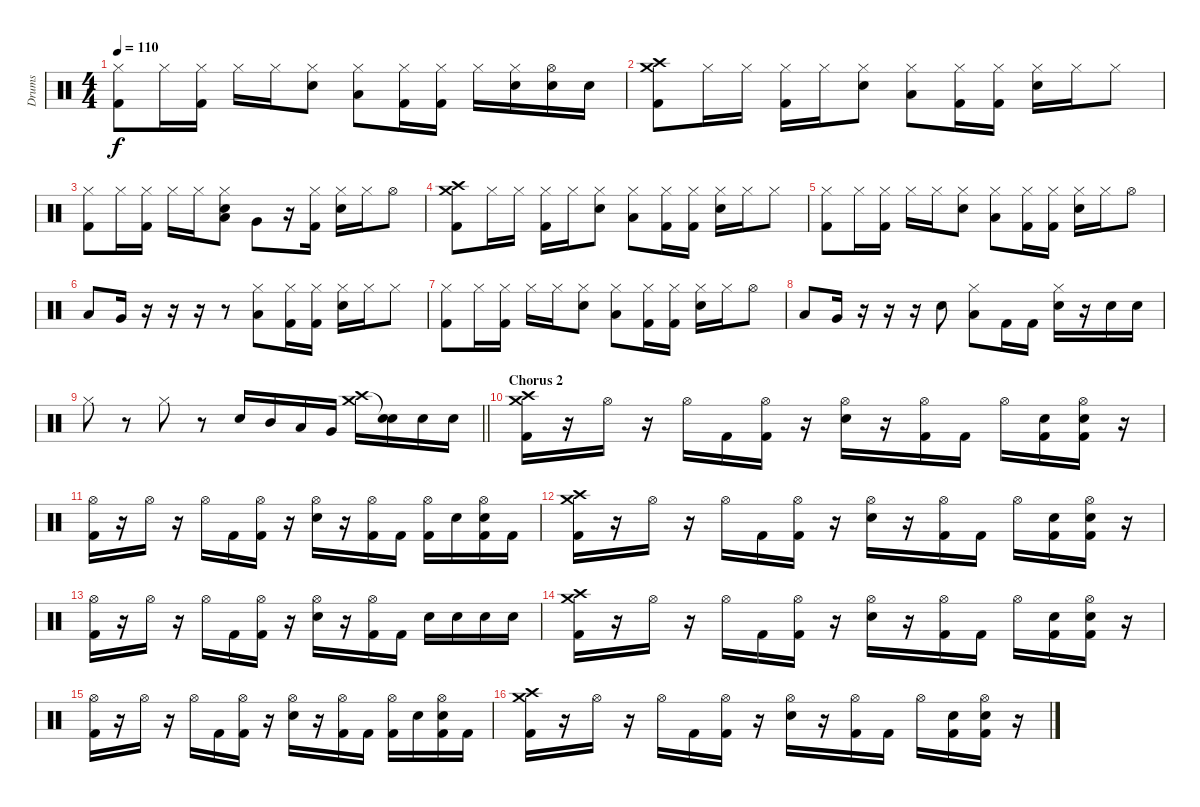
\track ("Drums" "Drums") {instrument percussion}
\staff {score}
\articulation defaults
\ts (4 4)
\tempo 110
\clef neutral
\ks c
("Hi-Hat (closed)" "Kick (hit) 2").8{dy f} "Hi-Hat (closed)".16 ("Hi-Hat (closed)" "Kick (hit) 2").16 "Hi-Hat (closed)".16 "Hi-Hat (closed)".16 ("Hi-Hat (closed)" "Snare (hit) 2").8 ("Hi-Hat (closed)" "Low Tom (hit)").8 ("Hi-Hat (closed)" "Kick (hit) 2").16 ("Hi-Hat (closed)" "Kick (hit) 2").16 "Hi-Hat (closed)".16 ("Hi-Hat (closed)" "Snare (hit) 2").16 ("Hi-Hat (open)" "Snare (hit) 2").16 "Snare (hit) 2".16 |
("Crash medium (hit)" "Crash high (hit)" "Kick (hit) 2").8 "Hi-Hat (closed)".16 "Hi-Hat (closed)".16 ("Hi-Hat (closed)" "Kick (hit) 2").16 "Hi-Hat (closed)".16 ("Hi-Hat (closed)" "Snare (hit) 2").8 ("Hi-Hat (closed)" "Low Tom (hit)").8 ("Hi-Hat (closed)" "Kick (hit) 2").16 ("Hi-Hat (closed)" "Kick (hit) 2").16 ("Hi-Hat (closed)" "Snare (hit) 2").16 "Hi-Hat (closed)".16 "Hi-Hat (closed)".8 |
("Hi-Hat (closed)" "Kick (hit) 2").8 "Hi-Hat (closed)".16 ("Hi-Hat (closed)" "Kick (hit) 2").16 "Hi-Hat (closed)".16 "Hi-Hat (closed)".16 ("Hi-Hat (closed)" "Low Tom (hit)" "Snare (hit) 2").8 "Very Low Tom (hit)".8 r.16 ("Hi-Hat (closed)" "Kick (hit) 2").16 ("Hi-Hat (closed)" "Snare (hit) 2").16 "Hi-Hat (closed)".16 "Hi-Hat (open)".8 |
("Crash medium (hit)" "Crash high (hit)" "Kick (hit) 2").8 "Hi-Hat (closed)".16 "Hi-Hat (closed)".16 ("Hi-Hat (closed)" "Kick (hit) 2").16 "Hi-Hat (closed)".16 ("Hi-Hat (closed)" "Snare (hit) 2").8 ("Hi-Hat (closed)" "Low Tom (hit)").8 ("Hi-Hat (closed)" "Kick (hit) 2").16 ("Hi-Hat (closed)" "Kick (hit) 2").16 ("Hi-Hat (closed)" "Snare (hit) 2").16 "Hi-Hat (closed)".16 "Hi-Hat (closed)".8 |
("Hi-Hat (closed)" "Kick (hit) 2").8 "Hi-Hat (closed)".16 ("Hi-Hat (closed)" "Kick (hit) 2").16 "Hi-Hat (closed)".16 "Hi-Hat (closed)".16 ("Hi-Hat (closed)" "Snare (hit) 2").8 ("Hi-Hat (closed)" "Low Tom (hit)").8 ("Hi-Hat (closed)" "Kick (hit) 2").16 ("Hi-Hat (closed)" "Kick (hit) 2").16 ("Hi-Hat (closed)" "Snare (hit) 2").16 "Hi-Hat (closed)".16 "Hi-Hat (open)".8 |
"Low Tom (hit)".8 "Very Low Tom (hit)".16 r.16 r.16 r.16 r.8 ("Hi-Hat (closed)" "Low Tom (hit)").8 ("Hi-Hat (closed)" "Kick (hit) 2").16 ("Hi-Hat (closed)" "Kick (hit) 2").16 ("Hi-Hat (closed)" "Snare (hit) 2").16 "Hi-Hat (closed)".16 "Hi-Hat (closed)".8 |
("Hi-Hat (closed)" "Kick (hit) 2").8 "Hi-Hat (closed)".16 ("Hi-Hat (closed)" "Kick (hit) 2").16 "Hi-Hat (closed)".16 "Hi-Hat (closed)".16 ("Hi-Hat (closed)" "Snare (hit) 2").8 ("Hi-Hat (closed)" "Low Tom (hit)").8 ("Hi-Hat (closed)" "Kick (hit) 2").16 ("Hi-Hat (closed)" "Kick (hit) 2").16 ("Hi-Hat (closed)" "Snare (hit) 2").16 "Hi-Hat (closed)".16 "Hi-Hat (open)".8 |
"Low Tom (hit)".8 "Very Low Tom (hit)".16 r.16 r.16 r.16 "Snare (hit) 2".8 ("Hi-Hat (closed)" "Low Tom (hit)").8 "Kick (hit) 2".16 "Kick (hit) 2".16 ("Hi-Hat (closed)" "Snare (hit) 2").16 r.16 "Snare (hit) 2".16 "Snare (hit) 2".16 |
\barLineRight lightlight "Hi-Hat (closed)".8
r.8 "Hi-Hat (closed)".8 r.8 "Snare (hit) 2".16 "Mid Tom (hit)".16 "Low Tom (hit)".16 "Very Low Tom (hit)".16 ("Crash high (hit)" "Crash medium (hit)").16 ("Snare (hit)"{t} "Snare (hit) 2").16 "Snare (hit) 2".16 "Snare (hit) 2".16 |
\section ("" "Chorus 2")
("Crash medium (hit)" "Crash high (hit)" "Kick (hit) 2").16 r.16 "Hi-Hat (open)".16 r.16 "Hi-Hat (open)".16 "Kick (hit) 2".16 ("Hi-Hat (open)" "Kick (hit) 2").16 r.16 ("Hi-Hat (open)" "Snare (hit) 2").16 r.16 ("Hi-Hat (open)" "Kick (hit) 2").16 "Kick (hit) 2".16 "Hi-Hat (open)".16 ("Snare (hit) 2" "Kick (hit) 2").16 ("Hi-Hat (open)" "Snare (hit) 2" "Kick (hit) 2").16 r.16 |
("Hi-Hat (open)" "Kick (hit) 2").16 r.16 "Hi-Hat (open)".16 r.16 "Hi-Hat (open)".16 "Kick (hit) 2".16 ("Hi-Hat (open)" "Kick (hit) 2").16 r.16 ("Hi-Hat (open)" "Snare (hit) 2").16 r.16 ("Hi-Hat (open)" "Kick (hit) 2").16 "Kick (hit) 2".16 ("Hi-Hat (open)" "Kick (hit) 2").16 "Snare (hit) 2".16 ("Hi-Hat (open)" "Snare (hit) 2" "Kick (hit) 2").16 "Kick (hit) 2".16 |
("Crash medium (hit)" "Crash high (hit)" "Kick (hit) 2").16 r.16 "Hi-Hat (open)".16 r.16 "Hi-Hat (open)".16 "Kick (hit) 2".16 ("Hi-Hat (open)" "Kick (hit) 2").16 r.16 ("Hi-Hat (open)" "Snare (hit) 2").16 r.16 ("Hi-Hat (open)" "Kick (hit) 2").16 "Kick (hit) 2".16 "Hi-Hat (open)".16 ("Snare (hit) 2" "Kick (hit) 2").16 ("Hi-Hat (open)" "Snare (hit) 2" "Kick (hit) 2").16 r.16 |
("Hi-Hat (open)" "Kick (hit) 2").16 r.16 "Hi-Hat (open)".16 r.16 "Hi-Hat (open)".16 "Kick (hit) 2".16 ("Hi-Hat (open)" "Kick (hit) 2").16 r.16 ("Hi-Hat (open)" "Snare (hit) 2").16 r.16 ("Hi-Hat (open)" "Kick (hit) 2").16 "Kick (hit) 2".16 "Snare (hit) 2".16 "Snare (hit) 2".16 "Snare (hit) 2".16 "Snare (hit) 2".16 |
("Crash medium (hit)" "Crash high (hit)" "Kick (hit) 2").16 r.16 "Hi-Hat (open)".16 r.16 "Hi-Hat (open)".16 "Kick (hit) 2".16 ("Hi-Hat (open)" "Kick (hit) 2").16 r.16 ("Hi-Hat (open)" "Snare (hit) 2").16 r.16 ("Hi-Hat (open)" "Kick (hit) 2").16 "Kick (hit) 2".16 "Hi-Hat (open)".16 ("Snare (hit) 2" "Kick (hit) 2").16 ("Hi-Hat (open)" "Snare (hit) 2" "Kick (hit) 2").16 r.16 |
("Hi-Hat (open)" "Kick (hit) 2").16 r.16 "Hi-Hat (open)".16 r.16 "Hi-Hat (open)".16 "Kick (hit) 2".16 ("Hi-Hat (open)" "Kick (hit) 2").16 r.16 ("Hi-Hat (open)" "Snare (hit) 2").16 r.16 ("Hi-Hat (open)" "Kick (hit) 2").16 "Kick (hit) 2".16 ("Hi-Hat (open)" "Kick (hit) 2").16 "Snare (hit) 2".16 ("Hi-Hat (open)" "Snare (hit) 2" "Kick (hit) 2").16 "Kick (hit) 2".16 |
("Crash medium (hit)" "Crash high (hit)" "Kick (hit) 2").16 r.16 "Hi-Hat (open)".16 r.16 "Hi-Hat (open)".16 "Kick (hit) 2".16 ("Hi-Hat (open)" "Kick (hit) 2").16 r.16 ("Hi-Hat (open)" "Snare (hit) 2").16 r.16 ("Hi-Hat (open)" "Kick (hit) 2").16 "Kick (hit) 2".16 "Hi-Hat (open)".16 ("Snare (hit) 2" "Kick (hit) 2").16 ("Hi-Hat (open)" "Snare (hit) 2" "Kick (hit) 2").16 r.16
